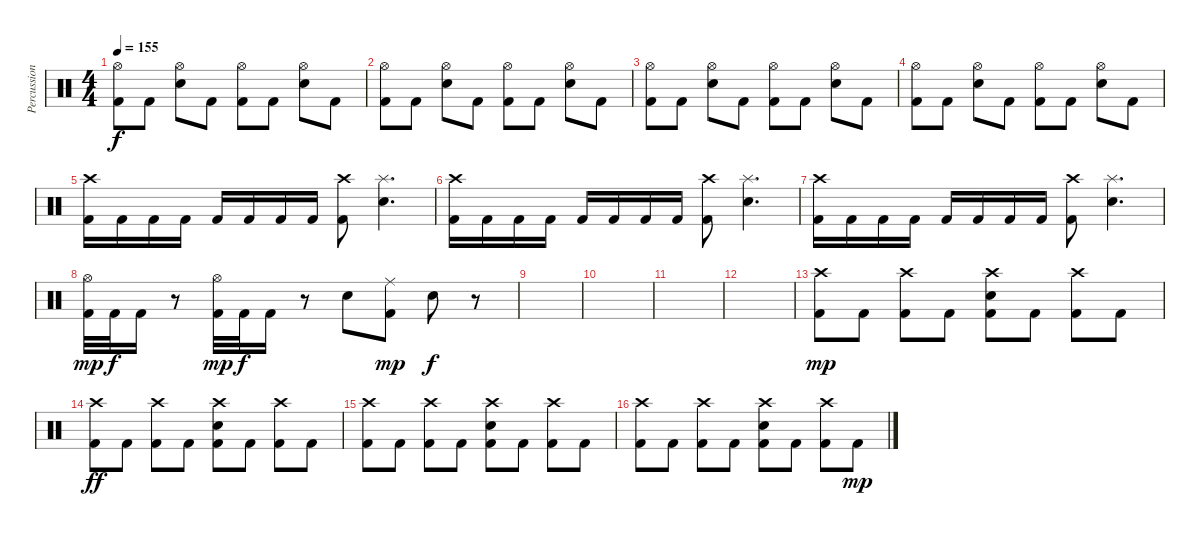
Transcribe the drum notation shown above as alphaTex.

\track ("Percussion" "Percussion") {instrument percussion}
\staff {score}
\articulation defaults
\ts (4 4)
\tempo 155
\clef neutral
\ks c
("Hi-Hat (open)" "Kick (hit) 2").8{dy f} "Kick (hit) 2".8 ("Hi-Hat (open)" "Electric Snare (hit)").8 "Kick (hit) 2".8 ("Hi-Hat (open)" "Kick (hit) 2").8 "Kick (hit) 2".8 ("Hi-Hat (open)" "Electric Snare (hit)").8 "Kick (hit) 2".8 |
("Hi-Hat (open)" "Kick (hit) 2").8 "Kick (hit) 2".8 ("Hi-Hat (open)" "Electric Snare (hit)").8 "Kick (hit) 2".8 ("Hi-Hat (open)" "Kick (hit) 2").8 "Kick (hit) 2".8 ("Hi-Hat (open)" "Electric Snare (hit)").8 "Kick (hit) 2".8 |
("Hi-Hat (open)" "Kick (hit) 2").8 "Kick (hit) 2".8 ("Hi-Hat (open)" "Electric Snare (hit)").8 "Kick (hit) 2".8 ("Hi-Hat (open)" "Kick (hit) 2").8 "Kick (hit) 2".8 ("Hi-Hat (open)" "Electric Snare (hit)").8 "Kick (hit) 2".8 |
("Hi-Hat (open)" "Kick (hit) 2").8 "Kick (hit) 2".8 ("Hi-Hat (open)" "Electric Snare (hit)").8 "Kick (hit) 2".8 ("Hi-Hat (open)" "Kick (hit) 2").8 "Kick (hit) 2".8 ("Hi-Hat (open)" "Electric Snare (hit)").8 "Kick (hit) 2".8 |
("Crash high (hit)" "Kick (hit) 2").16 "Kick (hit) 2".16 "Kick (hit) 2".16 "Kick (hit) 2".16 "Kick (hit) 2".16 "Kick (hit) 2".16 "Kick (hit) 2".16 "Kick (hit) 2".16 ("Crash high (hit)" "Kick (hit) 2").8 ("Electric Snare (hit)" "Splash (hit)").4{d} |
("Crash high (hit)" "Kick (hit) 2").16 "Kick (hit) 2".16 "Kick (hit) 2".16 "Kick (hit) 2".16 "Kick (hit) 2".16 "Kick (hit) 2".16 "Kick (hit) 2".16 "Kick (hit) 2".16 ("Crash high (hit)" "Kick (hit) 2").8 ("Electric Snare (hit)" "Splash (hit)").4{d} |
("Crash high (hit)" "Kick (hit) 2").16 "Kick (hit) 2".16 "Kick (hit) 2".16 "Kick (hit) 2".16 "Kick (hit) 2".16 "Kick (hit) 2".16 "Kick (hit) 2".16 "Kick (hit) 2".16 ("Crash high (hit)" "Kick (hit) 2").8 ("Electric Snare (hit)" "Splash (hit)").4{d} |
("Hi-Hat (open)" "Kick (hit) 2").32{dy mp} "Kick (hit) 2".32{dy f} "Kick (hit) 2".16 r.8 ("Hi-Hat (open)" "Kick (hit) 2").32{dy mp} "Kick (hit) 2".32{dy f} "Kick (hit) 2".16 r.8 "Electric Snare (hit)".8 ("Ride (middle)" "Kick (hit) 2").8{dy mp} "Electric Snare (hit)".8{dy f} r.8 |
|
|
|
|
("Crash high (hit)" "Kick (hit) 2").8{dy mp} "Kick (hit) 2".8 ("Crash high (hit)" "Kick (hit) 2").8 "Kick (hit) 2".8 ("Crash high (hit)" "Electric Snare (hit)" "Kick (hit) 2").8 "Kick (hit) 2".8 ("Crash high (hit)" "Kick (hit) 2").8 "Kick (hit) 2".8 |
("Crash high (hit)" "Kick (hit) 2").8{dy ff} "Kick (hit) 2".8 ("Crash high (hit)" "Kick (hit) 2").8 "Kick (hit) 2".8 ("Crash high (hit)" "Electric Snare (hit)" "Kick (hit) 2").8 "Kick (hit) 2".8 ("Crash high (hit)" "Kick (hit) 2").8 "Kick (hit) 2".8 |
("Crash high (hit)" "Kick (hit) 2").8 "Kick (hit) 2".8 ("Crash high (hit)" "Kick (hit) 2").8 "Kick (hit) 2".8 ("Crash high (hit)" "Electric Snare (hit)" "Kick (hit) 2").8 "Kick (hit) 2".8 ("Crash high (hit)" "Kick (hit) 2").8 "Kick (hit) 2".8 |
("Crash high (hit)" "Kick (hit) 2").8 "Kick (hit) 2".8 ("Crash high (hit)" "Kick (hit) 2").8 "Kick (hit) 2".8 ("Crash high (hit)" "Electric Snare (hit)" "Kick (hit) 2").8 "Kick (hit) 2".8 ("Crash high (hit)" "Kick (hit) 2").8 "Kick (hit) 2".8{dy mp}
